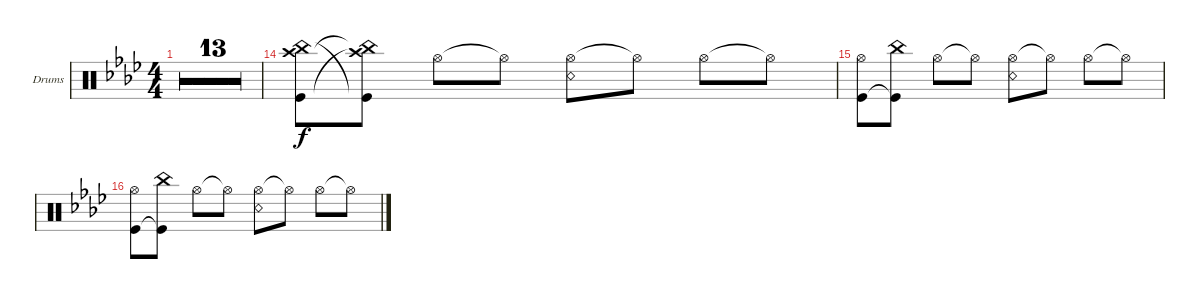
\defaultSystemsLayout 4
\bracketExtendMode groupsimilarinstruments
\firstSystemTrackNameOrientation horizontal
\otherSystemsTrackNameOrientation horizontal
\track ("Drumkit" "Drums") {multiBarRest instrument percussion}
\staff {score}
\articulation defaults
\ts (4 4)
\tempo 100
\clef neutral
\ks fminor
|
|
|
|
|
|
|
|
|
|
|
|
|
("China (hit)" "Crash high (hit)" "Kick (hit)").8 ("Kick (hit)"{t} "China (hit)"{t} "Crash high (hit)"{t}).8 "Hi-Hat (open)".8 "Hi-Hat (open)"{t}.8 ("Hi-Hat (open)" "Snare (rim shot)").8 "Hi-Hat (open)"{t}.8 "Hi-Hat (open)".8 "Hi-Hat (open)"{t}.8 |
("Kick (hit)" "Hi-Hat (open)").8 ("Kick (hit)"{t} "China (hit)").8 "Hi-Hat (open)".8 "Hi-Hat (open)"{t}.8 ("Hi-Hat (open)" "Snare (rim shot)").8 "Hi-Hat (open)"{t}.8 "Hi-Hat (open)".8 "Hi-Hat (open)"{t}.8 |
("Kick (hit)" "Hi-Hat (open)").8 ("Kick (hit)"{t} "China (hit)").8 "Hi-Hat (open)".8 "Hi-Hat (open)"{t}.8 ("Hi-Hat (open)" "Snare (rim shot)").8 "Hi-Hat (open)"{t}.8 "Hi-Hat (open)".8 "Hi-Hat (open)"{t}.8
